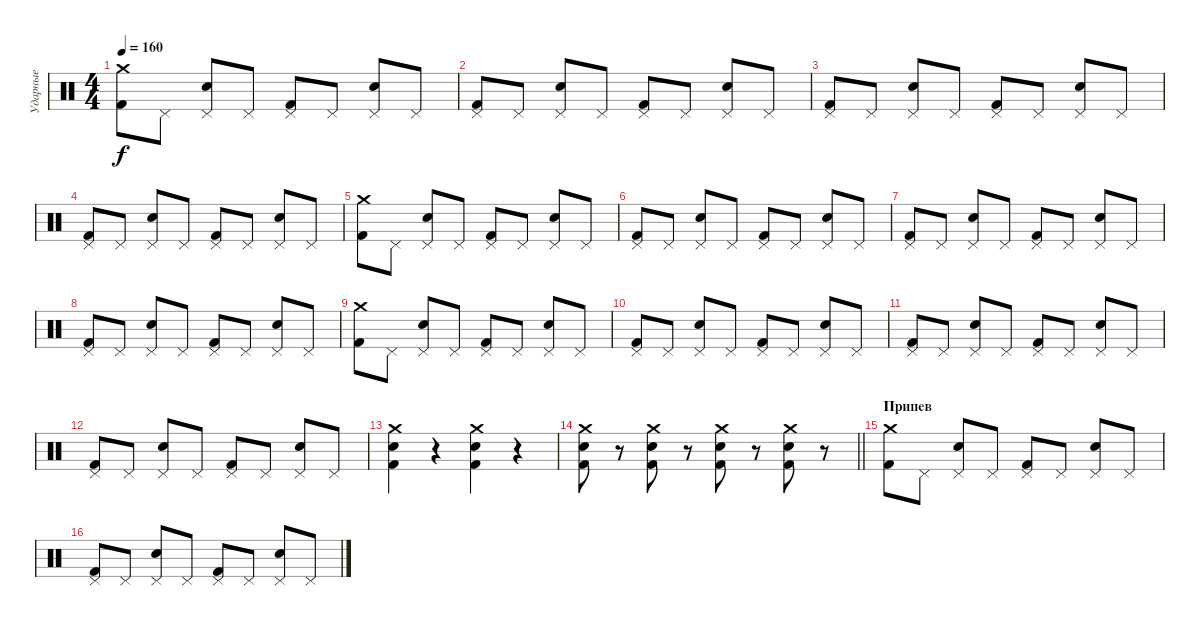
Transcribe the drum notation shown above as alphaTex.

\track ("Ударные" "Ударные") {instrument percussion}
\staff {score}
\articulation defaults
\ts (4 4)
\tempo 160
\clef neutral
\ks c
("Crash medium (hit)" "Kick (hit) 2").8{dy f} "Pedal Hi-Hat (hit)".8 ("Pedal Hi-Hat (hit)" "Snare (hit) 2").8 "Pedal Hi-Hat (hit)".8 ("Pedal Hi-Hat (hit)" "Kick (hit) 2").8 "Pedal Hi-Hat (hit)".8 ("Pedal Hi-Hat (hit)" "Snare (hit) 2").8 "Pedal Hi-Hat (hit)".8 |
("Pedal Hi-Hat (hit)" "Kick (hit) 2").8 "Pedal Hi-Hat (hit)".8 ("Pedal Hi-Hat (hit)" "Snare (hit) 2").8 "Pedal Hi-Hat (hit)".8 ("Pedal Hi-Hat (hit)" "Kick (hit) 2").8 "Pedal Hi-Hat (hit)".8 ("Pedal Hi-Hat (hit)" "Snare (hit) 2").8 "Pedal Hi-Hat (hit)".8 |
("Pedal Hi-Hat (hit)" "Kick (hit) 2").8 "Pedal Hi-Hat (hit)".8 ("Pedal Hi-Hat (hit)" "Snare (hit) 2").8 "Pedal Hi-Hat (hit)".8 ("Pedal Hi-Hat (hit)" "Kick (hit) 2").8 "Pedal Hi-Hat (hit)".8 ("Pedal Hi-Hat (hit)" "Snare (hit) 2").8 "Pedal Hi-Hat (hit)".8 |
("Pedal Hi-Hat (hit)" "Kick (hit) 2").8 "Pedal Hi-Hat (hit)".8 ("Pedal Hi-Hat (hit)" "Snare (hit) 2").8 "Pedal Hi-Hat (hit)".8 ("Pedal Hi-Hat (hit)" "Kick (hit) 2").8 "Pedal Hi-Hat (hit)".8 ("Pedal Hi-Hat (hit)" "Snare (hit) 2").8 "Pedal Hi-Hat (hit)".8 |
("Crash medium (hit)" "Kick (hit) 2").8 "Pedal Hi-Hat (hit)".8 ("Pedal Hi-Hat (hit)" "Snare (hit) 2").8 "Pedal Hi-Hat (hit)".8 ("Pedal Hi-Hat (hit)" "Kick (hit) 2").8 "Pedal Hi-Hat (hit)".8 ("Pedal Hi-Hat (hit)" "Snare (hit) 2").8 "Pedal Hi-Hat (hit)".8 |
("Pedal Hi-Hat (hit)" "Kick (hit) 2").8 "Pedal Hi-Hat (hit)".8 ("Pedal Hi-Hat (hit)" "Snare (hit) 2").8 "Pedal Hi-Hat (hit)".8 ("Pedal Hi-Hat (hit)" "Kick (hit) 2").8 "Pedal Hi-Hat (hit)".8 ("Pedal Hi-Hat (hit)" "Snare (hit) 2").8 "Pedal Hi-Hat (hit)".8 |
("Pedal Hi-Hat (hit)" "Kick (hit) 2").8 "Pedal Hi-Hat (hit)".8 ("Pedal Hi-Hat (hit)" "Snare (hit) 2").8 "Pedal Hi-Hat (hit)".8 ("Pedal Hi-Hat (hit)" "Kick (hit) 2").8 "Pedal Hi-Hat (hit)".8 ("Pedal Hi-Hat (hit)" "Snare (hit) 2").8 "Pedal Hi-Hat (hit)".8 |
("Pedal Hi-Hat (hit)" "Kick (hit) 2").8 "Pedal Hi-Hat (hit)".8 ("Pedal Hi-Hat (hit)" "Snare (hit) 2").8 "Pedal Hi-Hat (hit)".8 ("Pedal Hi-Hat (hit)" "Kick (hit) 2").8 "Pedal Hi-Hat (hit)".8 ("Pedal Hi-Hat (hit)" "Snare (hit) 2").8 "Pedal Hi-Hat (hit)".8 |
("Crash medium (hit)" "Kick (hit) 2").8 "Pedal Hi-Hat (hit)".8 ("Pedal Hi-Hat (hit)" "Snare (hit) 2").8 "Pedal Hi-Hat (hit)".8 ("Pedal Hi-Hat (hit)" "Kick (hit) 2").8 "Pedal Hi-Hat (hit)".8 ("Pedal Hi-Hat (hit)" "Snare (hit) 2").8 "Pedal Hi-Hat (hit)".8 |
("Pedal Hi-Hat (hit)" "Kick (hit) 2").8 "Pedal Hi-Hat (hit)".8 ("Pedal Hi-Hat (hit)" "Snare (hit) 2").8 "Pedal Hi-Hat (hit)".8 ("Pedal Hi-Hat (hit)" "Kick (hit) 2").8 "Pedal Hi-Hat (hit)".8 ("Pedal Hi-Hat (hit)" "Snare (hit) 2").8 "Pedal Hi-Hat (hit)".8 |
("Pedal Hi-Hat (hit)" "Kick (hit) 2").8 "Pedal Hi-Hat (hit)".8 ("Pedal Hi-Hat (hit)" "Snare (hit) 2").8 "Pedal Hi-Hat (hit)".8 ("Pedal Hi-Hat (hit)" "Kick (hit) 2").8 "Pedal Hi-Hat (hit)".8 ("Pedal Hi-Hat (hit)" "Snare (hit) 2").8 "Pedal Hi-Hat (hit)".8 |
("Pedal Hi-Hat (hit)" "Kick (hit) 2").8 "Pedal Hi-Hat (hit)".8 ("Pedal Hi-Hat (hit)" "Snare (hit) 2").8 "Pedal Hi-Hat (hit)".8 ("Pedal Hi-Hat (hit)" "Kick (hit) 2").8 "Pedal Hi-Hat (hit)".8 ("Pedal Hi-Hat (hit)" "Snare (hit) 2").8 "Pedal Hi-Hat (hit)".8 |
("Crash medium (hit)" "Kick (hit) 2" "Snare (hit) 2").4 r.4 ("Crash medium (hit)" "Kick (hit) 2" "Snare (hit) 2").4 r.4 |
\barLineRight lightlight
("Crash medium (hit)" "Kick (hit) 2" "Snare (hit) 2").8 r.8 ("Crash medium (hit)" "Kick (hit) 2" "Snare (hit) 2").8 r.8 ("Crash medium (hit)" "Kick (hit) 2" "Snare (hit) 2").8 r.8 ("Crash medium (hit)" "Kick (hit) 2" "Snare (hit) 2").8 r.8 |
\section ("" "Припев")
("Crash medium (hit)" "Kick (hit) 2").8 "Pedal Hi-Hat (hit)".8 ("Pedal Hi-Hat (hit)" "Snare (hit) 2").8 "Pedal Hi-Hat (hit)".8 ("Pedal Hi-Hat (hit)" "Kick (hit) 2").8 "Pedal Hi-Hat (hit)".8 ("Pedal Hi-Hat (hit)" "Snare (hit) 2").8 "Pedal Hi-Hat (hit)".8 |
("Pedal Hi-Hat (hit)" "Kick (hit) 2").8 "Pedal Hi-Hat (hit)".8 ("Pedal Hi-Hat (hit)" "Snare (hit) 2").8 "Pedal Hi-Hat (hit)".8 ("Pedal Hi-Hat (hit)" "Kick (hit) 2").8 "Pedal Hi-Hat (hit)".8 ("Pedal Hi-Hat (hit)" "Snare (hit) 2").8 "Pedal Hi-Hat (hit)".8
